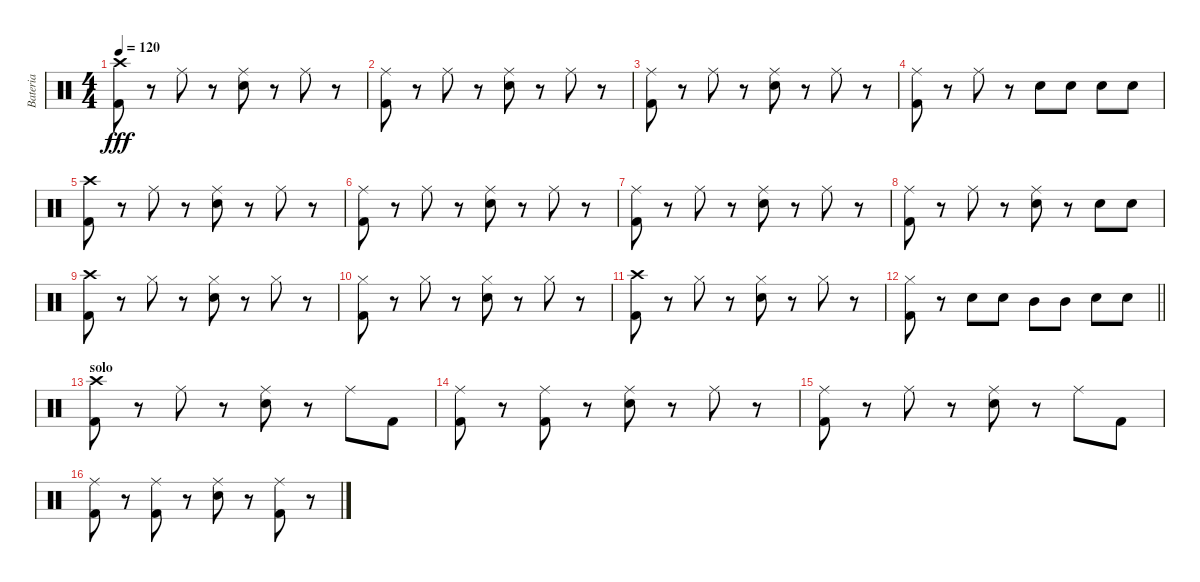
\track ("Bateria" "Bateria") {instrument percussion}
\staff {score}
\articulation defaults
\ts (4 4)
\tempo 120
\clef neutral
\ks c
("Crash high (hit)" "Kick (hit) 2").8{dy fff} r.8 "Ride (middle)".8 r.8 ("Ride (middle)" "Electric Snare (hit)").8 r.8 "Ride (middle)".8 r.8 |
("Ride (middle)" "Kick (hit) 2").8 r.8 "Ride (middle)".8 r.8 ("Ride (middle)" "Electric Snare (hit)").8 r.8 "Ride (middle)".8 r.8 |
("Ride (middle)" "Kick (hit) 2").8 r.8 "Ride (middle)".8 r.8 ("Ride (middle)" "Electric Snare (hit)").8 r.8 "Ride (middle)".8 r.8 |
("Ride (middle)" "Kick (hit) 2").8 r.8 "Ride (middle)".8 r.8 "Electric Snare (hit)".8 "Electric Snare (hit)".8 "Electric Snare (hit)".8 "Electric Snare (hit)".8 |
("Crash high (hit)" "Kick (hit) 2").8 r.8 "Ride (middle)".8 r.8 ("Ride (middle)" "Electric Snare (hit)").8 r.8 "Ride (middle)".8 r.8 |
("Ride (middle)" "Kick (hit) 2").8 r.8 "Ride (middle)".8 r.8 ("Ride (middle)" "Electric Snare (hit)").8 r.8 "Ride (middle)".8 r.8 |
("Ride (middle)" "Kick (hit) 2").8 r.8 "Ride (middle)".8 r.8 ("Ride (middle)" "Electric Snare (hit)").8 r.8 "Ride (middle)".8 r.8 |
("Ride (middle)" "Kick (hit) 2").8 r.8 "Ride (middle)".8 r.8 ("Ride (middle)" "Electric Snare (hit)").8 r.8 "Electric Snare (hit)".8 "Electric Snare (hit)".8 |
("Crash high (hit)" "Kick (hit) 2").8 r.8 "Hi-Hat (closed)".8 r.8 ("Hi-Hat (closed)" "Electric Snare (hit)").8 r.8 "Hi-Hat (closed)".8 r.8 |
("Hi-Hat (closed)" "Kick (hit) 2").8 r.8 "Hi-Hat (closed)".8 r.8 ("Hi-Hat (closed)" "Electric Snare (hit)").8 r.8 "Hi-Hat (closed)".8 r.8 |
("Crash high (hit)" "Kick (hit) 2").8 r.8 "Hi-Hat (closed)".8 r.8 ("Hi-Hat (closed)" "Electric Snare (hit)").8 r.8 "Hi-Hat (closed)".8 r.8 |
\barLineRight lightlight
("Hi-Hat (closed)" "Kick (hit) 2").8 r.8 "Electric Snare (hit)".8 "Electric Snare (hit)".8 "Mid Tom (hit)".8 "Mid Tom (hit)".8 "Electric Snare (hit)".8 "Electric Snare (hit)".8 |
\section ("" "solo")
("Crash high (hit)" "Kick (hit) 2").8 r.8 "Ride (middle)".8 r.8 ("Ride (middle)" "Electric Snare (hit)").8 r.8 "Ride (middle)".8 "Kick (hit) 2".8 |
("Ride (middle)" "Kick (hit) 2").8 r.8 ("Ride (middle)" "Kick (hit) 2").8 r.8 ("Ride (middle)" "Electric Snare (hit)").8 r.8 "Ride (middle)".8 r.8 |
("Ride (middle)" "Kick (hit) 2").8 r.8 "Ride (middle)".8 r.8 ("Ride (middle)" "Electric Snare (hit)").8 r.8 "Ride (middle)".8 "Kick (hit) 2".8 |
("Ride (middle)" "Kick (hit) 2").8 r.8 ("Ride (middle)" "Kick (hit) 2").8 r.8 ("Ride (middle)" "Electric Snare (hit)").8 r.8 ("Ride (middle)" "Kick (hit) 2").8 r.8
